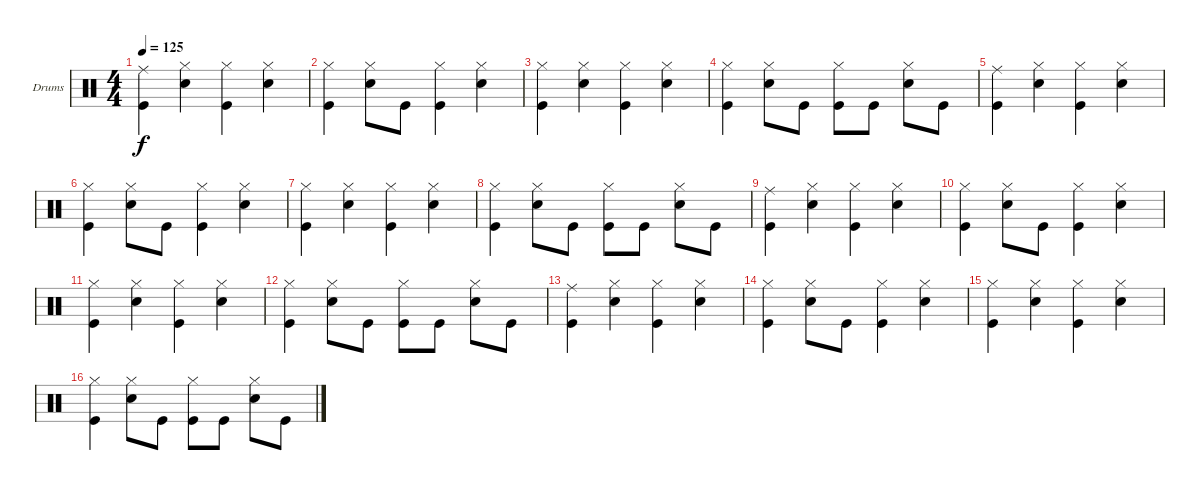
\defaultSystemsLayout 4
\bracketExtendMode groupsimilarinstruments
\firstSystemTrackNameOrientation horizontal
\otherSystemsTrackNameOrientation horizontal
\track ("Drumkit" "Drums") {instrument percussion}
\staff {score}
\articulation defaults
\ts (4 4)
\tempo 125
\clef neutral
\scale
0.333333
\ks c
("Ride (middle)" "Kick (hit)").4{dy f} ("Snare (hit) 2" "Hi-Hat (closed)").4 ("Hi-Hat (closed)" "Kick (hit)").4 ("Hi-Hat (closed)" "Snare (hit) 2").4 |
\scale
0.333333 ("Hi-Hat (closed)" "Kick (hit)").4 ("Hi-Hat (closed)" "Snare (hit) 2").8 "Kick (hit)".8 ("Kick (hit)" "Hi-Hat (closed)").4 ("Hi-Hat (closed)" "Snare (hit) 2").4 |
\scale
0.333333 ("Hi-Hat (closed)" "Kick (hit)").4 ("Hi-Hat (closed)" "Snare (hit) 2").4 ("Hi-Hat (closed)" "Kick (hit)").4 ("Hi-Hat (closed)" "Snare (hit) 2").4 |
\scale
0.333333 ("Hi-Hat (closed)" "Kick (hit)").4 ("Snare (hit) 2" "Hi-Hat (closed)").8 "Kick (hit)".8 ("Kick (hit)" "Hi-Hat (closed)").8 "Kick (hit)".8 ("Snare (hit) 2" "Hi-Hat (closed)").8 "Kick (hit)".8 |
\scale
0.333333 ("Ride (middle)" "Kick (hit)").4 ("Snare (hit) 2" "Hi-Hat (closed)").4 ("Hi-Hat (closed)" "Kick (hit)").4 ("Hi-Hat (closed)" "Snare (hit) 2").4 |
\scale
0.333333 ("Hi-Hat (closed)" "Kick (hit)").4 ("Hi-Hat (closed)" "Snare (hit) 2").8 "Kick (hit)".8 ("Kick (hit)" "Hi-Hat (closed)").4 ("Hi-Hat (closed)" "Snare (hit) 2").4 |
\scale
0.333333 ("Hi-Hat (closed)" "Kick (hit)").4 ("Hi-Hat (closed)" "Snare (hit) 2").4 ("Hi-Hat (closed)" "Kick (hit)").4 ("Hi-Hat (closed)" "Snare (hit) 2").4 |
\scale
0.333333 ("Hi-Hat (closed)" "Kick (hit)").4 ("Snare (hit) 2" "Hi-Hat (closed)").8 "Kick (hit)".8 ("Kick (hit)" "Hi-Hat (closed)").8 "Kick (hit)".8 ("Snare (hit) 2" "Hi-Hat (closed)").8 "Kick (hit)".8 |
\scale
0.333333 ("Ride (middle)" "Kick (hit)").4 ("Snare (hit) 2" "Hi-Hat (closed)").4 ("Hi-Hat (closed)" "Kick (hit)").4 ("Hi-Hat (closed)" "Snare (hit) 2").4 |
\scale
0.333333 ("Hi-Hat (closed)" "Kick (hit)").4 ("Hi-Hat (closed)" "Snare (hit) 2").8 "Kick (hit)".8 ("Kick (hit)" "Hi-Hat (closed)").4 ("Hi-Hat (closed)" "Snare (hit) 2").4 |
\scale
0.333333 ("Hi-Hat (closed)" "Kick (hit)").4 ("Hi-Hat (closed)" "Snare (hit) 2").4 ("Hi-Hat (closed)" "Kick (hit)").4 ("Hi-Hat (closed)" "Snare (hit) 2").4 |
\scale
0.333333 ("Hi-Hat (closed)" "Kick (hit)").4 ("Snare (hit) 2" "Hi-Hat (closed)").8 "Kick (hit)".8 ("Kick (hit)" "Hi-Hat (closed)").8 "Kick (hit)".8 ("Snare (hit) 2" "Hi-Hat (closed)").8 "Kick (hit)".8 |
\scale
0.333333 ("Ride (middle)" "Kick (hit)").4 ("Snare (hit) 2" "Hi-Hat (closed)").4 ("Hi-Hat (closed)" "Kick (hit)").4 ("Hi-Hat (closed)" "Snare (hit) 2").4 |
\scale
0.333333 ("Hi-Hat (closed)" "Kick (hit)").4 ("Hi-Hat (closed)" "Snare (hit) 2").8 "Kick (hit)".8 ("Kick (hit)" "Hi-Hat (closed)").4 ("Hi-Hat (closed)" "Snare (hit) 2").4 |
\scale
0.333333 ("Hi-Hat (closed)" "Kick (hit)").4 ("Hi-Hat (closed)" "Snare (hit) 2").4 ("Hi-Hat (closed)" "Kick (hit)").4 ("Hi-Hat (closed)" "Snare (hit) 2").4 |
\scale
0.333333 ("Hi-Hat (closed)" "Kick (hit)").4 ("Snare (hit) 2" "Hi-Hat (closed)").8 "Kick (hit)".8 ("Kick (hit)" "Hi-Hat (closed)").8 "Kick (hit)".8 ("Snare (hit) 2" "Hi-Hat (closed)").8 "Kick (hit)".8
